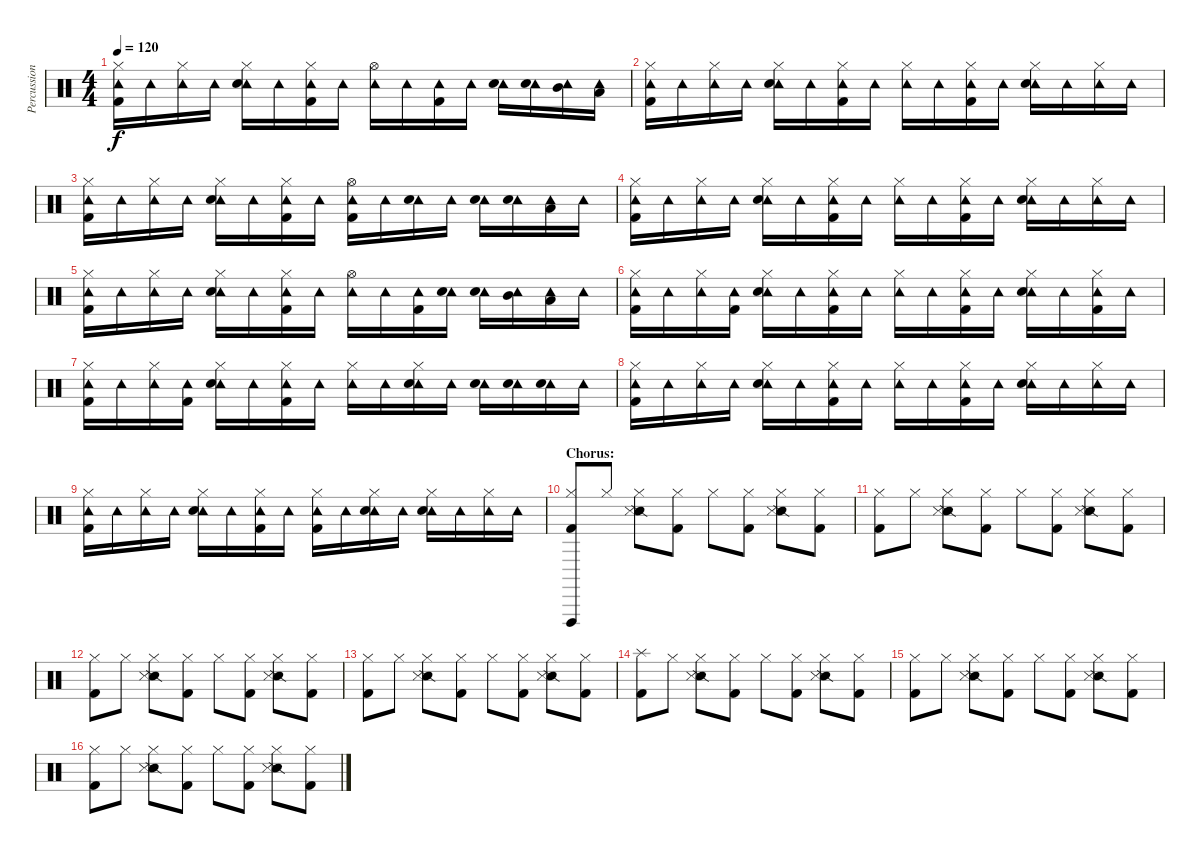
\track ("Percussion" "Percussion") {instrument percussion}
\staff {score}
\articulation defaults
\ts (4 4)
\tempo 120
\clef neutral
\ks c
("Hi-Hat (closed)" "Tambourine (hit)" "Kick (hit) 2").16{dy f} "Tambourine (hit)".16 ("Hi-Hat (closed)" "Tambourine (hit)").16 "Tambourine (hit)".16 ("Hi-Hat (closed)" "Tambourine (hit)" "Electric Snare (hit)").16 "Tambourine (hit)".16 ("Hi-Hat (closed)" "Tambourine (hit)" "Kick (hit) 2").16 "Tambourine (hit)".16 ("Hi-Hat (open)" "Tambourine (hit)").16 "Tambourine (hit)".16 ("Tambourine (hit)" "Kick (hit) 2").16 "Tambourine (hit)".16 ("Tambourine (hit)" "Electric Snare (hit)").16 ("Tambourine (hit)" "Electric Snare (hit)").16 ("Tambourine (hit)" "Mid Tom (hit)").16 ("Tambourine (hit)" "Low Tom (hit)").16 |
("Hi-Hat (closed)" "Tambourine (hit)" "Kick (hit) 2").16 "Tambourine (hit)".16 ("Hi-Hat (closed)" "Tambourine (hit)").16 "Tambourine (hit)".16 ("Hi-Hat (closed)" "Tambourine (hit)" "Electric Snare (hit)").16 "Tambourine (hit)".16 ("Hi-Hat (closed)" "Tambourine (hit)" "Kick (hit) 2").16 "Tambourine (hit)".16 ("Hi-Hat (closed)" "Tambourine (hit)").16 "Tambourine (hit)".16 ("Hi-Hat (closed)" "Tambourine (hit)" "Kick (hit) 2").16 "Tambourine (hit)".16 ("Hi-Hat (closed)" "Tambourine (hit)" "Electric Snare (hit)").16 "Tambourine (hit)".16 ("Hi-Hat (closed)" "Tambourine (hit)").16 "Tambourine (hit)".16 |
("Hi-Hat (closed)" "Tambourine (hit)" "Kick (hit) 2").16 "Tambourine (hit)".16 ("Hi-Hat (closed)" "Tambourine (hit)").16 "Tambourine (hit)".16 ("Hi-Hat (closed)" "Tambourine (hit)" "Electric Snare (hit)").16 "Tambourine (hit)".16 ("Hi-Hat (closed)" "Tambourine (hit)" "Kick (hit) 2").16 "Tambourine (hit)".16 ("Hi-Hat (open)" "Tambourine (hit)" "Kick (hit) 2").16 "Tambourine (hit)".16 ("Tambourine (hit)" "Electric Snare (hit)").16 "Tambourine (hit)".16 ("Tambourine (hit)" "Electric Snare (hit)").16 ("Tambourine (hit)" "Electric Snare (hit)").16 ("Tambourine (hit)" "Low Tom (hit)").16 "Tambourine (hit)".16 |
("Hi-Hat (closed)" "Tambourine (hit)" "Kick (hit) 2").16 "Tambourine (hit)".16 ("Hi-Hat (closed)" "Tambourine (hit)").16 "Tambourine (hit)".16 ("Hi-Hat (closed)" "Tambourine (hit)" "Electric Snare (hit)").16 "Tambourine (hit)".16 ("Hi-Hat (closed)" "Tambourine (hit)" "Kick (hit) 2").16 "Tambourine (hit)".16 ("Hi-Hat (closed)" "Tambourine (hit)").16 "Tambourine (hit)".16 ("Hi-Hat (closed)" "Tambourine (hit)" "Kick (hit) 2").16 "Tambourine (hit)".16 ("Hi-Hat (closed)" "Tambourine (hit)" "Electric Snare (hit)").16 "Tambourine (hit)".16 ("Hi-Hat (closed)" "Tambourine (hit)").16 "Tambourine (hit)".16 |
("Hi-Hat (closed)" "Tambourine (hit)" "Kick (hit) 2").16 "Tambourine (hit)".16 ("Hi-Hat (closed)" "Tambourine (hit)").16 "Tambourine (hit)".16 ("Hi-Hat (closed)" "Tambourine (hit)" "Electric Snare (hit)").16 "Tambourine (hit)".16 ("Hi-Hat (closed)" "Tambourine (hit)" "Kick (hit) 2").16 "Tambourine (hit)".16 ("Hi-Hat (open)" "Tambourine (hit)").16 "Tambourine (hit)".16 ("Tambourine (hit)" "Kick (hit) 2").16 ("Tambourine (hit)" "Electric Snare (hit)").16 ("Tambourine (hit)" "Electric Snare (hit)").16 ("Tambourine (hit)" "Mid Tom (hit)").16 ("Tambourine (hit)" "Low Tom (hit)").16 "Tambourine (hit)".16 |
("Hi-Hat (closed)" "Tambourine (hit)" "Kick (hit) 2").16 "Tambourine (hit)".16 ("Hi-Hat (closed)" "Tambourine (hit)").16 ("Tambourine (hit)" "Kick (hit) 2").16 ("Hi-Hat (closed)" "Tambourine (hit)" "Electric Snare (hit)").16 "Tambourine (hit)".16 ("Hi-Hat (closed)" "Tambourine (hit)" "Kick (hit) 2").16 "Tambourine (hit)".16 ("Hi-Hat (closed)" "Tambourine (hit)").16 "Tambourine (hit)".16 ("Hi-Hat (closed)" "Tambourine (hit)" "Kick (hit) 2").16 "Tambourine (hit)".16 ("Hi-Hat (closed)" "Tambourine (hit)" "Electric Snare (hit)").16 "Tambourine (hit)".16 ("Hi-Hat (closed)" "Tambourine (hit)" "Kick (hit) 2").16 "Tambourine (hit)".16 |
("Hi-Hat (closed)" "Tambourine (hit)" "Kick (hit) 2").16 "Tambourine (hit)".16 ("Hi-Hat (closed)" "Tambourine (hit)").16 ("Tambourine (hit)" "Kick (hit) 2").16 ("Hi-Hat (closed)" "Tambourine (hit)" "Electric Snare (hit)").16 "Tambourine (hit)".16 ("Hi-Hat (closed)" "Tambourine (hit)" "Kick (hit) 2").16 "Tambourine (hit)".16 ("Hi-Hat (closed)" "Tambourine (hit)").16 "Tambourine (hit)".16 ("Hi-Hat (closed)" "Tambourine (hit)" "Electric Snare (hit)").16 "Tambourine (hit)".16 ("Tambourine (hit)" "Electric Snare (hit)").16 ("Tambourine (hit)" "Electric Snare (hit)").16 ("Tambourine (hit)" "Electric Snare (hit)").16 "Tambourine (hit)".16 |
("Hi-Hat (closed)" "Tambourine (hit)" "Kick (hit) 2").16 "Tambourine (hit)".16 ("Hi-Hat (closed)" "Tambourine (hit)").16 "Tambourine (hit)".16 ("Hi-Hat (closed)" "Tambourine (hit)" "Electric Snare (hit)").16 "Tambourine (hit)".16 ("Hi-Hat (closed)" "Tambourine (hit)" "Kick (hit) 2").16 "Tambourine (hit)".16 ("Hi-Hat (closed)" "Tambourine (hit)").16 "Tambourine (hit)".16 ("Hi-Hat (closed)" "Tambourine (hit)" "Kick (hit) 2").16 "Tambourine (hit)".16 ("Hi-Hat (closed)" "Tambourine (hit)" "Electric Snare (hit)").16 "Tambourine (hit)".16 ("Hi-Hat (closed)" "Tambourine (hit)").16 "Tambourine (hit)".16 |
("Hi-Hat (closed)" "Tambourine (hit)" "Kick (hit) 2").16 "Tambourine (hit)".16 ("Hi-Hat (closed)" "Tambourine (hit)").16 "Tambourine (hit)".16 ("Hi-Hat (closed)" "Tambourine (hit)" "Electric Snare (hit)").16 "Tambourine (hit)".16 ("Hi-Hat (closed)" "Tambourine (hit)" "Kick (hit) 2").16 "Tambourine (hit)".16 ("Hi-Hat (closed)" "Tambourine (hit)" "Kick (hit) 2").16 "Tambourine (hit)".16 ("Hi-Hat (closed)" "Tambourine (hit)" "Electric Snare (hit)").16 "Tambourine (hit)".16 ("Hi-Hat (closed)" "Tambourine (hit)" "Electric Snare (hit)").16 "Tambourine (hit)".16 ("Hi-Hat (closed)" "Tambourine (hit)").16 "Tambourine (hit)".16 |
\section ("" "Chorus:")
("Hi-Hat (closed)" "Vibraslap (hit)" "Kick (hit) 2").8 "Hi-Hat (closed)".8 ("Hi-Hat (closed)" "Snare (side stick) 2" "Snare (side stick) 3").8 ("Hi-Hat (closed)" "Kick (hit) 2").8 "Hi-Hat (closed)".8 ("Hi-Hat (closed)" "Kick (hit) 2").8 ("Hi-Hat (closed)" "Snare (side stick) 2" "Snare (side stick) 3").8 ("Hi-Hat (closed)" "Kick (hit) 2").8 |
("Hi-Hat (closed)" "Kick (hit) 2").8 "Hi-Hat (closed)".8 ("Hi-Hat (closed)" "Snare (side stick) 2" "Snare (side stick) 3").8 ("Hi-Hat (closed)" "Kick (hit) 2").8 "Hi-Hat (closed)".8 ("Hi-Hat (closed)" "Kick (hit) 2").8 ("Hi-Hat (closed)" "Snare (side stick) 2" "Snare (side stick) 3").8 ("Hi-Hat (closed)" "Kick (hit) 2").8 |
("Hi-Hat (closed)" "Kick (hit) 2").8 "Hi-Hat (closed)".8 ("Hi-Hat (closed)" "Snare (side stick) 2" "Snare (side stick) 3").8 ("Hi-Hat (closed)" "Kick (hit) 2").8 "Hi-Hat (closed)".8 ("Hi-Hat (closed)" "Kick (hit) 2").8 ("Hi-Hat (closed)" "Snare (side stick) 2" "Snare (side stick) 3").8 ("Hi-Hat (closed)" "Kick (hit) 2").8 |
("Hi-Hat (closed)" "Kick (hit) 2").8 "Hi-Hat (closed)".8 ("Hi-Hat (closed)" "Snare (side stick) 2" "Snare (side stick) 3").8 ("Hi-Hat (closed)" "Kick (hit) 2").8 "Hi-Hat (closed)".8 ("Hi-Hat (closed)" "Kick (hit) 2").8 ("Hi-Hat (closed)" "Snare (side stick) 2" "Snare (side stick) 3").8 ("Hi-Hat (closed)" "Kick (hit) 2").8 |
("Splash (hit)" "Kick (hit) 2").8 "Hi-Hat (closed)".8 ("Hi-Hat (closed)" "Snare (side stick) 2" "Snare (side stick) 3").8 ("Hi-Hat (closed)" "Kick (hit) 2").8 "Hi-Hat (closed)".8 ("Hi-Hat (closed)" "Kick (hit) 2").8 ("Hi-Hat (closed)" "Snare (side stick) 2" "Snare (side stick) 3").8 ("Hi-Hat (closed)" "Kick (hit) 2").8 |
("Hi-Hat (closed)" "Kick (hit) 2").8 "Hi-Hat (closed)".8 ("Hi-Hat (closed)" "Snare (side stick) 2" "Snare (side stick) 3").8 ("Hi-Hat (closed)" "Kick (hit) 2").8 "Hi-Hat (closed)".8 ("Hi-Hat (closed)" "Kick (hit) 2").8 ("Hi-Hat (closed)" "Snare (side stick) 2" "Snare (side stick) 3").8 ("Hi-Hat (closed)" "Kick (hit) 2").8 |
("Hi-Hat (closed)" "Kick (hit) 2").8 "Hi-Hat (closed)".8 ("Hi-Hat (closed)" "Snare (side stick) 2" "Snare (side stick) 3").8 ("Hi-Hat (closed)" "Kick (hit) 2").8 "Hi-Hat (closed)".8 ("Hi-Hat (closed)" "Kick (hit) 2").8 ("Hi-Hat (closed)" "Snare (side stick) 2" "Snare (side stick) 3").8 ("Hi-Hat (closed)" "Kick (hit) 2").8
